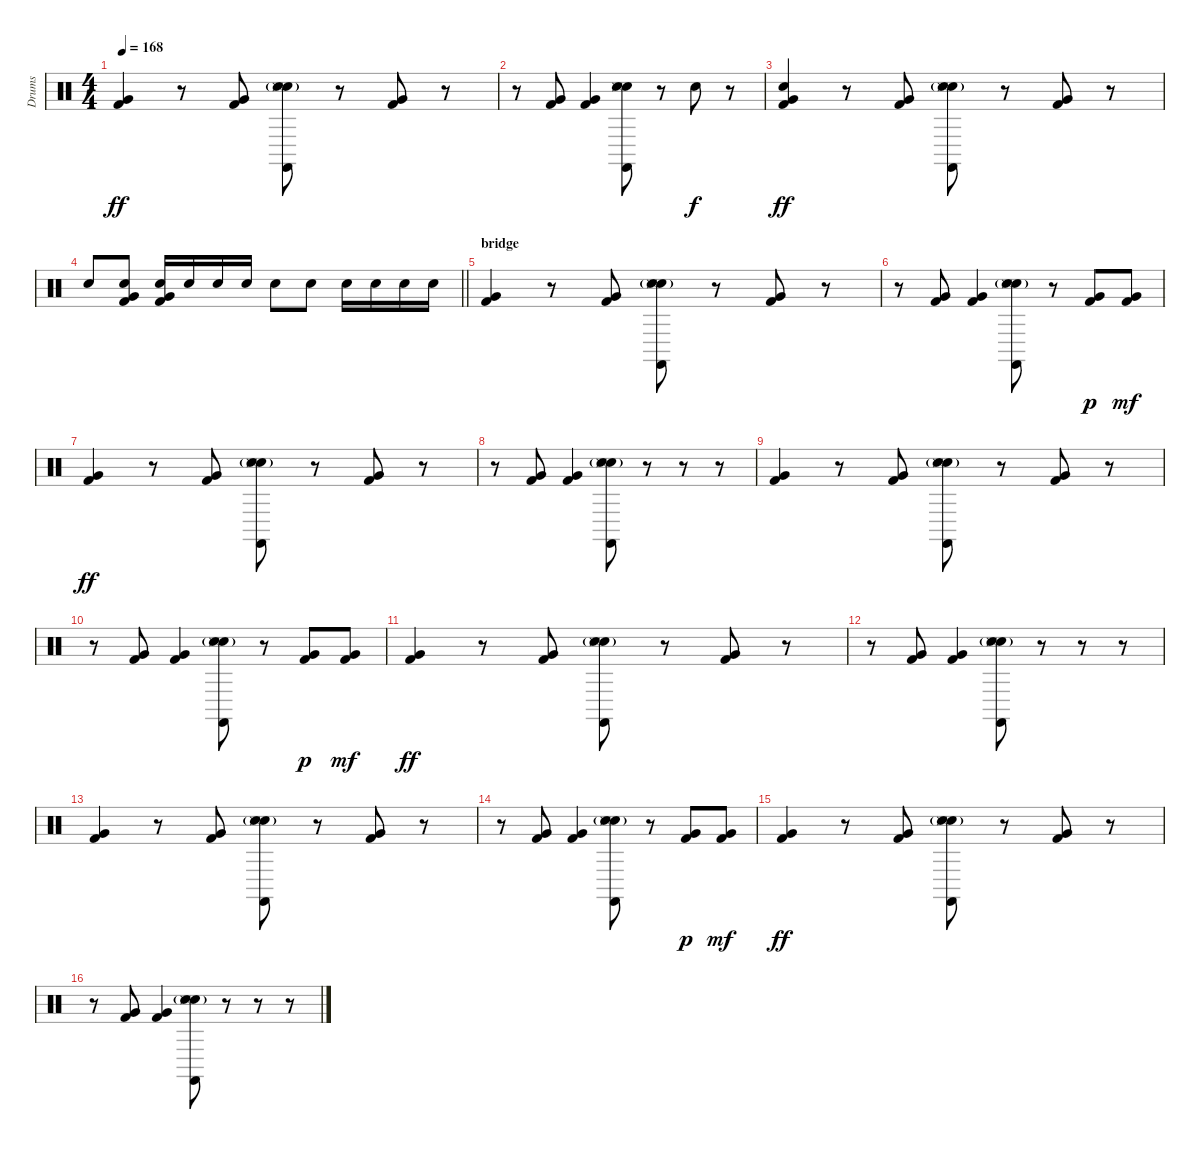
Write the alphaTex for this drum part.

\track ("Drums" "Drums") {instrument percussion}
\staff {score}
\articulation defaults
\ts (4 4)
\tempo 168
\clef neutral
\ks c
("Very Low Tom (hit)" "Kick (hit) 2").4{dy ff} r.8 ("Very Low Tom (hit)" "Kick (hit) 2").8 ("Snare (hit) 2" "Hand Clap (hit)"{g} "Castanets (hit)" "Snare (side stick) 3").8 r.8 ("Very Low Tom (hit)" "Kick (hit) 2").8 r.8 |
r.8 ("Very Low Tom (hit)" "Kick (hit) 2").8 ("Very Low Tom (hit)" "Kick (hit) 2").4 ("Hand Clap (hit)" "Snare (hit) 2" "Castanets (hit)" "Snare (side stick) 3").8 r.8 "Hand Clap (hit)".8{dy f} r.8 |
("Hand Clap (hit)" "Very Low Tom (hit)" "Kick (hit) 2").4{dy ff} r.8 ("Very Low Tom (hit)" "Kick (hit) 2").8 ("Snare (hit) 2" "Hand Clap (hit)"{g} "Castanets (hit)" "Snare (side stick) 3").8 r.8 ("Very Low Tom (hit)" "Kick (hit) 2").8 r.8 |
\barLineRight lightlight "Snare (hit) 2".8
("Snare (hit) 2" "Very Low Tom (hit)" "Kick (hit) 2").8 ("Snare (hit) 2" "Very Low Tom (hit)" "Kick (hit) 2").16 "Snare (hit) 2".16 "Snare (hit) 2".16 "Snare (hit) 2".16 "Snare (hit) 2".8 "Snare (hit) 2".8 "Snare (hit) 2".16 "Snare (hit) 2".16 "Snare (hit) 2".16 "Snare (hit) 2".16 |
\section ("" "bridge")
("Very Low Tom (hit)" "Kick (hit) 2").4 r.8 ("Very Low Tom (hit)" "Kick (hit) 2").8 ("Snare (hit) 2" "Hand Clap (hit)"{g} "Castanets (hit)" "Snare (side stick) 3").8 r.8 ("Very Low Tom (hit)" "Kick (hit) 2").8 r.8 |
r.8 ("Very Low Tom (hit)" "Kick (hit) 2").8 ("Very Low Tom (hit)" "Kick (hit) 2").4 ("Snare (hit) 2" "Hand Clap (hit)"{g} "Castanets (hit)" "Snare (side stick) 3").8 r.8 ("Very Low Tom (hit)" "Kick (hit) 2").8{dy p} ("Very Low Tom (hit)" "Kick (hit) 2").8{dy mf} |
("Very Low Tom (hit)" "Kick (hit) 2").4{dy ff} r.8 ("Very Low Tom (hit)" "Kick (hit) 2").8 ("Snare (hit) 2" "Hand Clap (hit)"{g} "Castanets (hit)" "Snare (side stick) 3").8 r.8 ("Very Low Tom (hit)" "Kick (hit) 2").8 r.8 |
r.8 ("Very Low Tom (hit)" "Kick (hit) 2").8 ("Very Low Tom (hit)" "Kick (hit) 2").4 ("Snare (hit) 2" "Hand Clap (hit)"{g} "Castanets (hit)" "Snare (side stick) 3").8 r.8 r.8 r.8 |
("Very Low Tom (hit)" "Kick (hit) 2").4 r.8 ("Very Low Tom (hit)" "Kick (hit) 2").8 ("Snare (hit) 2" "Hand Clap (hit)"{g} "Castanets (hit)" "Snare (side stick) 3").8 r.8 ("Very Low Tom (hit)" "Kick (hit) 2").8 r.8 |
r.8 ("Very Low Tom (hit)" "Kick (hit) 2").8 ("Very Low Tom (hit)" "Kick (hit) 2").4 ("Snare (hit) 2" "Hand Clap (hit)"{g} "Castanets (hit)" "Snare (side stick) 3").8 r.8 ("Very Low Tom (hit)" "Kick (hit) 2").8{dy p} ("Very Low Tom (hit)" "Kick (hit) 2").8{dy mf} |
("Very Low Tom (hit)" "Kick (hit) 2").4{dy ff} r.8 ("Very Low Tom (hit)" "Kick (hit) 2").8 ("Snare (hit) 2" "Hand Clap (hit)"{g} "Castanets (hit)" "Snare (side stick) 3").8 r.8 ("Very Low Tom (hit)" "Kick (hit) 2").8 r.8 |
r.8 ("Very Low Tom (hit)" "Kick (hit) 2").8 ("Very Low Tom (hit)" "Kick (hit) 2").4 ("Snare (hit) 2" "Hand Clap (hit)"{g} "Castanets (hit)" "Snare (side stick) 3").8 r.8 r.8 r.8 |
("Very Low Tom (hit)" "Kick (hit) 2").4 r.8 ("Very Low Tom (hit)" "Kick (hit) 2").8 ("Snare (hit) 2" "Hand Clap (hit)"{g} "Castanets (hit)" "Snare (side stick) 3").8 r.8 ("Very Low Tom (hit)" "Kick (hit) 2").8 r.8 |
r.8 ("Very Low Tom (hit)" "Kick (hit) 2").8 ("Very Low Tom (hit)" "Kick (hit) 2").4 ("Snare (hit) 2" "Hand Clap (hit)"{g} "Castanets (hit)" "Snare (side stick) 3").8 r.8 ("Very Low Tom (hit)" "Kick (hit) 2").8{dy p} ("Very Low Tom (hit)" "Kick (hit) 2").8{dy mf} |
("Very Low Tom (hit)" "Kick (hit) 2").4{dy ff} r.8 ("Very Low Tom (hit)" "Kick (hit) 2").8 ("Snare (hit) 2" "Hand Clap (hit)"{g} "Castanets (hit)" "Snare (side stick) 3").8 r.8 ("Very Low Tom (hit)" "Kick (hit) 2").8 r.8 |
r.8 ("Very Low Tom (hit)" "Kick (hit) 2").8 ("Very Low Tom (hit)" "Kick (hit) 2").4 ("Snare (hit) 2" "Hand Clap (hit)"{g} "Castanets (hit)" "Snare (side stick) 3").8 r.8 r.8 r.8
